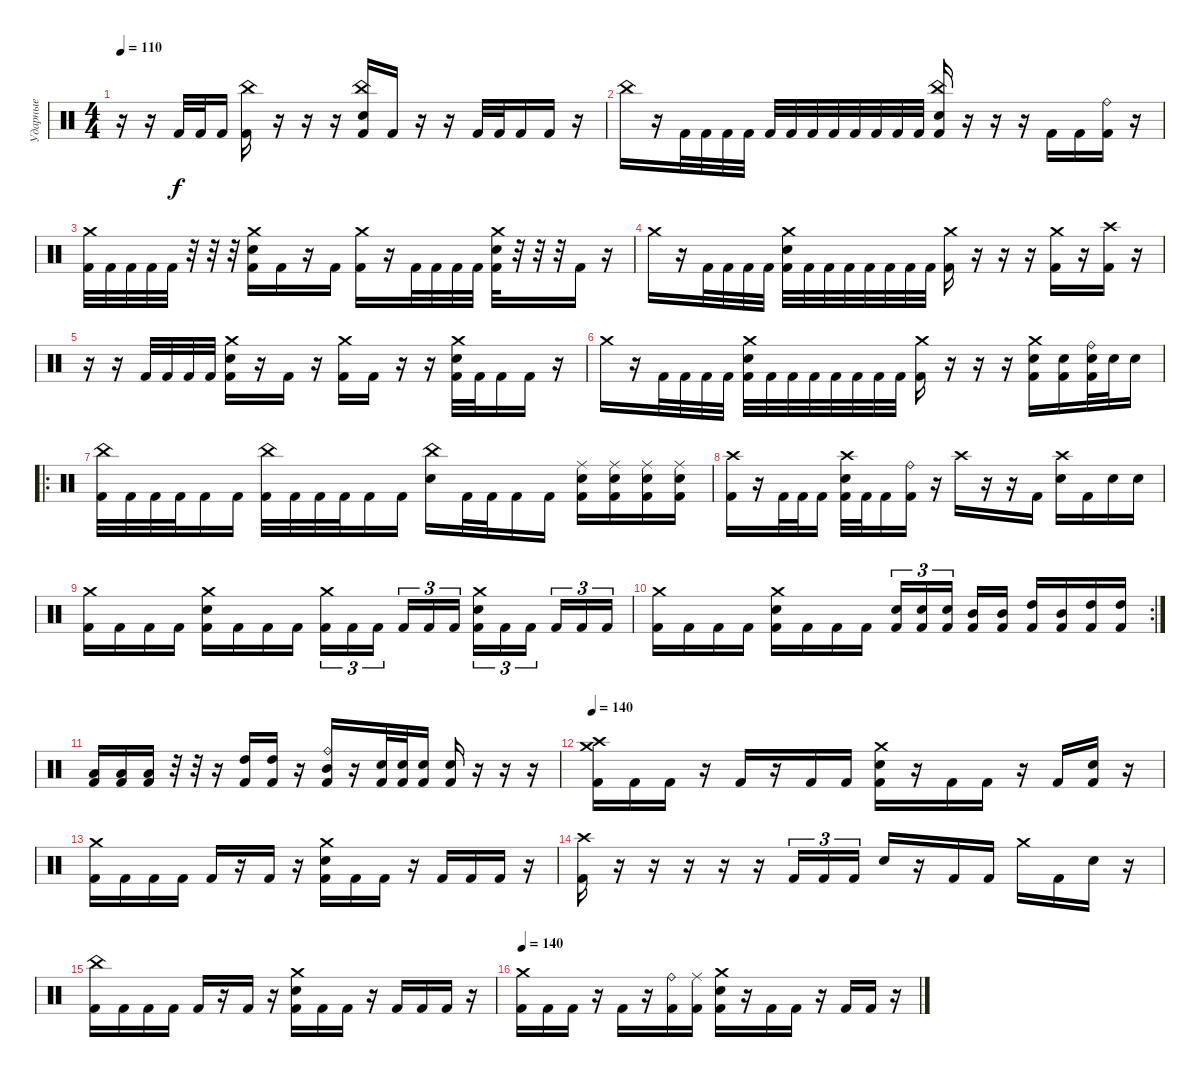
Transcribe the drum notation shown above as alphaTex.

\track ("Ударные" "Ударные") {instrument percussion}
\staff {score}
\articulation defaults
\ts (4 4)
\tempo 110
\clef neutral
\ks c
r.16{dy f} r.16 "Kick (hit) 2".32 "Kick (hit) 2".32 "Kick (hit) 2".16 ("China (hit)" "Kick (hit) 2").16 r.16 r.16 r.16 ("China (hit)" "Electric Snare (hit)" "Kick (hit) 2").16 "Kick (hit) 2".16 r.16 r.16 "Kick (hit) 2".32 "Kick (hit) 2".32 "Kick (hit) 2".16 "Kick (hit) 2".16 r.16 |
"China (hit)".16 r.16 "Kick (hit) 2".32 "Kick (hit) 2".32 "Kick (hit) 2".32 "Kick (hit) 2".32 "Kick (hit) 2".32 "Kick (hit) 2".32 "Kick (hit) 2".32 "Kick (hit) 2".32 "Kick (hit) 2".32 "Kick (hit) 2".32 "Kick (hit) 2".32 "Kick (hit) 2".32 ("China (hit)" "Electric Snare (hit)" "Kick (hit) 2").16 r.16 r.16 r.16 "Kick (hit) 2".16 "Kick (hit) 2".16 ("Ride (bell)" "Kick (hit) 2").16 r.16 |
("Crash medium (hit)" "Kick (hit) 2").32 "Kick (hit) 2".32 "Kick (hit) 2".32 "Kick (hit) 2".32 "Kick (hit) 2".32 r.32 r.32 r.32 ("Crash medium (hit)" "Electric Snare (hit)" "Kick (hit) 2").16 "Kick (hit) 2".16 r.16 "Kick (hit) 2".16 ("Crash medium (hit)" "Kick (hit) 2").16 r.16 "Kick (hit) 2".32 "Kick (hit) 2".32 "Kick (hit) 2".32 "Kick (hit) 2".32 ("Crash medium (hit)" "Electric Snare (hit)" "Kick (hit) 2").32 r.32 r.32 r.32 "Kick (hit) 2".16 r.16 |
"Crash medium (hit)".16 r.16 "Kick (hit) 2".32 "Kick (hit) 2".32 "Kick (hit) 2".32 "Kick (hit) 2".32 ("Crash medium (hit)" "Electric Snare (hit)" "Kick (hit) 2").32 "Kick (hit) 2".32 "Kick (hit) 2".32 "Kick (hit) 2".32 "Kick (hit) 2".32 "Kick (hit) 2".32 "Kick (hit) 2".32 "Kick (hit) 2".32 ("Crash medium (hit)" "Kick (hit) 2").16 r.16 r.16 r.16 ("Crash medium (hit)" "Kick (hit) 2").16 r.16 ("Crash high (hit)" "Kick (hit) 2").16 r.16 |
r.16 r.16 "Kick (hit) 2".32 "Kick (hit) 2".32 "Kick (hit) 2".32 "Kick (hit) 2".32 ("Crash medium (hit)" "Electric Snare (hit)" "Kick (hit) 2").16 r.16 "Kick (hit) 2".16 r.16 ("Crash medium (hit)" "Kick (hit) 2").16 "Kick (hit) 2".16 r.16 r.16 ("Crash medium (hit)" "Electric Snare (hit)" "Kick (hit) 2").32 "Kick (hit) 2".32 "Kick (hit) 2".16 "Kick (hit) 2".16 r.16 |
"Crash medium (hit)".16 r.16 "Kick (hit) 2".32 "Kick (hit) 2".32 "Kick (hit) 2".32 "Kick (hit) 2".32 ("Crash medium (hit)" "Electric Snare (hit)" "Kick (hit) 2").32 "Kick (hit) 2".32 "Kick (hit) 2".32 "Kick (hit) 2".32 "Kick (hit) 2".32 "Kick (hit) 2".32 "Kick (hit) 2".32 "Kick (hit) 2".32 ("Crash medium (hit)" "Kick (hit) 2").16 r.16 r.16 r.16 ("Crash medium (hit)" "Electric Snare (hit)" "Kick (hit) 2").16 ("Electric Snare (hit)" "Kick (hit) 2").16 ("Ride (bell)" "Electric Snare (hit)" "Kick (hit) 2").32 "Electric Snare (hit)".32 "Electric Snare (hit)".16 |
\ro
("China (hit)" "Kick (hit) 2").32 "Kick (hit) 2".32 "Kick (hit) 2".32 "Kick (hit) 2".32 "Kick (hit) 2".16 "Kick (hit) 2".16 ("China (hit)" "Kick (hit) 2").32 "Kick (hit) 2".32 "Kick (hit) 2".32 "Kick (hit) 2".32 "Kick (hit) 2".16 "Kick (hit) 2".16 ("China (hit)" "Electric Snare (hit)").16 "Kick (hit) 2".32 "Kick (hit) 2".32 "Kick (hit) 2".16 "Kick (hit) 2".16 ("Ride (middle)" "Electric Snare (hit)" "Kick (hit) 2").16 ("Ride (middle)" "Electric Snare (hit)" "Kick (hit) 2").16 ("Ride (middle)" "Electric Snare (hit)" "Kick (hit) 2").16 ("Ride (middle)" "Electric Snare (hit)" "Kick (hit) 2").16 |
("Crash high (hit)" "Kick (hit) 2").16 r.16 "Kick (hit) 2".32 "Kick (hit) 2".32 "Kick (hit) 2".16 ("Crash high (hit)" "Electric Snare (hit)" "Kick (hit) 2").32 "Kick (hit) 2".32 "Kick (hit) 2".16 ("Ride (bell)" "Kick (hit) 2").16 r.16 "Crash high (hit)".16 r.16 r.16 "Kick (hit) 2".16 ("Crash high (hit)" "Electric Snare (hit)").16 "Kick (hit) 2".16 "Electric Snare (hit)".16 "Electric Snare (hit)".16 |
("Crash medium (hit)" "Kick (hit) 2").16 "Kick (hit) 2".16 "Kick (hit) 2".16 "Kick (hit) 2".16 ("Crash medium (hit)" "Electric Snare (hit)" "Kick (hit) 2").16 "Kick (hit) 2".16 "Kick (hit) 2".16 "Kick (hit) 2".16 ("Crash medium (hit)" "Kick (hit) 2").16{tu (3 2)} "Kick (hit) 2".16{tu (3 2)} "Kick (hit) 2".16{tu (3 2) beam splitsecondary} "Kick (hit) 2".16{tu (3 2)} "Kick (hit) 2".16{tu (3 2)} "Kick (hit) 2".16{tu (3 2)} ("Crash medium (hit)" "Electric Snare (hit)" "Kick (hit) 2").16{tu (3 2)} "Kick (hit) 2".16{tu (3 2)} "Kick (hit) 2".16{tu (3 2) beam splitsecondary} "Kick (hit) 2".16{tu (3 2)} "Kick (hit) 2".16{tu (3 2)} "Kick (hit) 2".16{tu (3 2)} |
\rc 2
("Crash medium (hit)" "Kick (hit) 2").16 "Kick (hit) 2".16 "Kick (hit) 2".16 "Kick (hit) 2".16 ("Crash medium (hit)" "Electric Snare (hit)" "Kick (hit) 2").16 "Kick (hit) 2".16 "Kick (hit) 2".16 "Kick (hit) 2".16 ("Electric Snare (hit)" "Kick (hit) 2").16{tu (3 2)} ("Electric Snare (hit)" "Kick (hit) 2").16{tu (3 2)} ("Electric Snare (hit)" "Kick (hit) 2").16{tu (3 2) beam splitsecondary} ("Mid Tom (hit)" "Kick (hit) 2").16 ("Mid Tom (hit)" "Kick (hit) 2").16 ("High Tom (hit)" "Kick (hit) 2").16 ("Mid Tom (hit)" "Kick (hit) 2").16 ("High Tom (hit)" "Kick (hit) 2").16 ("High Tom (hit)" "Kick (hit) 2").16 |
("Low Tom (hit)" "Kick (hit) 2").16 ("Low Tom (hit)" "Kick (hit) 2").16 ("Low Tom (hit)" "Kick (hit) 2").16 r.32 r.32 r.16 ("High Tom (hit)" "Kick (hit) 2").16 ("High Tom (hit)" "Kick (hit) 2").16 r.16 ("Ride (bell)" "Mid Tom (hit)" "Kick (hit) 2").16 r.16 ("Electric Snare (hit)" "Kick (hit) 2").32 ("Electric Snare (hit)" "Kick (hit) 2").32 ("Electric Snare (hit)" "Kick (hit) 2").16 ("Electric Snare (hit)" "Kick (hit) 2").16 r.16 r.16 r.16 |
\tempo 150
\tempo 140
("Crash medium (hit)" "Crash high (hit)" "Kick (hit) 2").16 "Kick (hit) 2".16 "Kick (hit) 2".16 r.16 "Kick (hit) 2".16 r.16 "Kick (hit) 2".16 "Kick (hit) 2".16 ("Crash medium (hit)" "Electric Snare (hit)" "Kick (hit) 2").16 r.16 "Kick (hit) 2".16 "Kick (hit) 2".16 r.16 "Kick (hit) 2".16 ("Electric Snare (hit)" "Kick (hit) 2").16 r.16 |
("Crash medium (hit)" "Kick (hit) 2").16 "Kick (hit) 2".16 "Kick (hit) 2".16 "Kick (hit) 2".16 "Kick (hit) 2".16 r.16 "Kick (hit) 2".16 r.16 ("Crash medium (hit)" "Electric Snare (hit)" "Kick (hit) 2").16 "Kick (hit) 2".16 "Kick (hit) 2".16 r.16 "Kick (hit) 2".16 "Kick (hit) 2".16 "Kick (hit) 2".16 r.16 |
("Crash high (hit)" "Kick (hit) 2").16 r.16 r.16 r.16 r.16 r.16 "Kick (hit) 2".16{tu (3 2)} "Kick (hit) 2".16{tu (3 2)} "Kick (hit) 2".16{tu (3 2)} "Electric Snare (hit)".16 r.16 "Kick (hit) 2".16 "Kick (hit) 2".16 "Crash medium (hit)".16 "Kick (hit) 2".16 "Electric Snare (hit)".16 r.16 |
("China (hit)" "Kick (hit) 2").16 "Kick (hit) 2".16 "Kick (hit) 2".16 "Kick (hit) 2".16 "Kick (hit) 2".16 r.16 "Kick (hit) 2".16 r.16 ("Crash medium (hit)" "Electric Snare (hit)" "Kick (hit) 2").16 "Kick (hit) 2".16 "Kick (hit) 2".16 r.16 "Kick (hit) 2".16 "Kick (hit) 2".16 "Kick (hit) 2".16 r.16 |
\tempo 140
("Crash medium (hit)" "Kick (hit) 2").16 "Kick (hit) 2".16 "Kick (hit) 2".16 r.16 "Kick (hit) 2".16 r.16 ("Ride (bell)" "Kick (hit) 2").16 ("Ride (middle)" "Kick (hit) 2").16 ("Crash medium (hit)" "Electric Snare (hit)" "Kick (hit) 2").16 r.16 "Kick (hit) 2".16 "Kick (hit) 2".16 r.16 "Kick (hit) 2".16 "Kick (hit) 2".16 r.16
